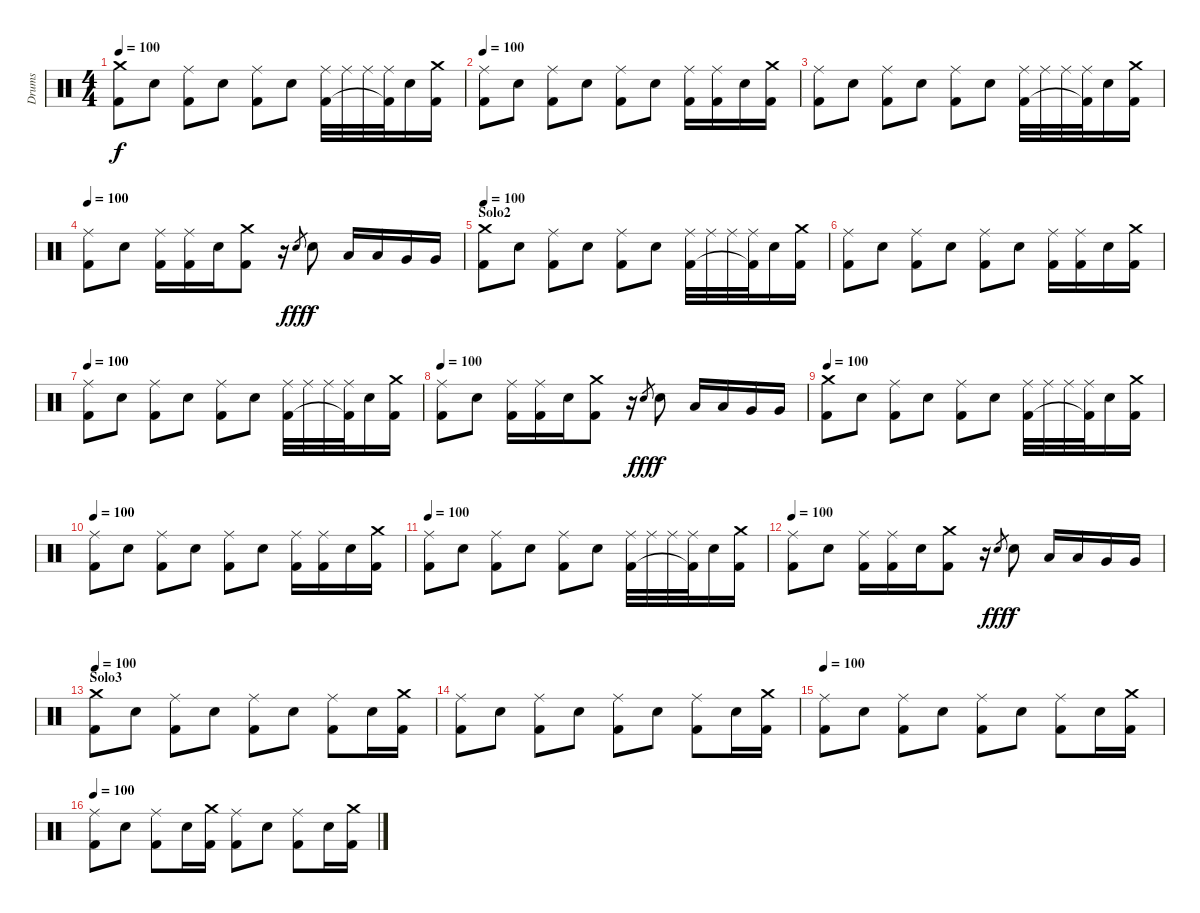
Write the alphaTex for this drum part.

\track ("Drums" "Drums") {instrument percussion}
\staff {score}
\articulation defaults
\ts (4 4)
\tempo 100
\clef neutral
\ks c
("Crash medium (hit)" "Kick (hit) 2").8{dy f} "Snare (hit) 2".8 ("Ride (middle)" "Kick (hit) 2").8 "Snare (hit) 2".8 ("Ride (middle)" "Kick (hit) 2").8 "Snare (hit) 2".8 ("Ride (middle)" "Kick (hit) 2").32 "Ride (middle)".32 "Ride (middle)".32 ("Ride (middle)" "Kick (hit) 2"{t}).32 "Snare (hit) 2".16 ("Crash medium (hit)" "Kick (hit) 2").16 |
\tempo 100
("Ride (middle)" "Kick (hit) 2").8 "Snare (hit) 2".8 ("Ride (middle)" "Kick (hit) 2").8 "Snare (hit) 2".8 ("Ride (middle)" "Kick (hit) 2").8 "Snare (hit) 2".8 ("Ride (middle)" "Kick (hit) 2").16 ("Ride (middle)" "Kick (hit) 2").16 "Snare (hit) 2".16 ("Crash medium (hit)" "Kick (hit) 2").16 |
("Ride (middle)" "Kick (hit) 2").8 "Snare (hit) 2".8 ("Ride (middle)" "Kick (hit) 2").8 "Snare (hit) 2".8 ("Ride (middle)" "Kick (hit) 2").8 "Snare (hit) 2".8 ("Ride (middle)" "Kick (hit) 2").32 "Ride (middle)".32 "Ride (middle)".32 ("Ride (middle)" "Kick (hit) 2"{t}).32 "Snare (hit) 2".16 ("Crash medium (hit)" "Kick (hit) 2").16 |
\tempo 100
("Ride (middle)" "Kick (hit) 2").8 "Snare (hit) 2".8 ("Ride (middle)" "Kick (hit) 2").16 ("Ride (middle)" "Kick (hit) 2").16 "Snare (hit) 2".16 ("Crash medium (hit)" "Kick (hit) 2").8 r.16 "Snare (hit) 2".8{gr dy fff} "Snare (hit) 2".8{dy f} "Low Tom (hit)".16 "Low Tom (hit)".16 "Very Low Tom (hit)".16 "Very Low Tom (hit)".16 |
\section ("" "Solo2")
\tempo 100
("Crash medium (hit)" "Kick (hit) 2").8 "Snare (hit) 2".8 ("Ride (middle)" "Kick (hit) 2").8 "Snare (hit) 2".8 ("Ride (middle)" "Kick (hit) 2").8 "Snare (hit) 2".8 ("Ride (middle)" "Kick (hit) 2").32 "Ride (middle)".32 "Ride (middle)".32 ("Ride (middle)" "Kick (hit) 2"{t}).32 "Snare (hit) 2".16 ("Crash medium (hit)" "Kick (hit) 2").16 |
("Ride (middle)" "Kick (hit) 2").8 "Snare (hit) 2".8 ("Ride (middle)" "Kick (hit) 2").8 "Snare (hit) 2".8 ("Ride (middle)" "Kick (hit) 2").8 "Snare (hit) 2".8 ("Ride (middle)" "Kick (hit) 2").16 ("Ride (middle)" "Kick (hit) 2").16 "Snare (hit) 2".16 ("Crash medium (hit)" "Kick (hit) 2").16 |
\tempo 100
("Ride (middle)" "Kick (hit) 2").8 "Snare (hit) 2".8 ("Ride (middle)" "Kick (hit) 2").8 "Snare (hit) 2".8 ("Ride (middle)" "Kick (hit) 2").8 "Snare (hit) 2".8 ("Ride (middle)" "Kick (hit) 2").32 "Ride (middle)".32 "Ride (middle)".32 ("Ride (middle)" "Kick (hit) 2"{t}).32 "Snare (hit) 2".16 ("Crash medium (hit)" "Kick (hit) 2").16 |
\tempo 100
("Ride (middle)" "Kick (hit) 2").8 "Snare (hit) 2".8 ("Ride (middle)" "Kick (hit) 2").16 ("Ride (middle)" "Kick (hit) 2").16 "Snare (hit) 2".16 ("Crash medium (hit)" "Kick (hit) 2").8 r.16 "Snare (hit) 2".8{gr dy fff} "Snare (hit) 2".8{dy f} "Low Tom (hit)".16 "Low Tom (hit)".16 "Very Low Tom (hit)".16 "Very Low Tom (hit)".16 |
\tempo 100
("Crash medium (hit)" "Kick (hit) 2").8 "Snare (hit) 2".8 ("Ride (middle)" "Kick (hit) 2").8 "Snare (hit) 2".8 ("Ride (middle)" "Kick (hit) 2").8 "Snare (hit) 2".8 ("Ride (middle)" "Kick (hit) 2").32 "Ride (middle)".32 "Ride (middle)".32 ("Ride (middle)" "Kick (hit) 2"{t}).32 "Snare (hit) 2".16 ("Crash medium (hit)" "Kick (hit) 2").16 |
\tempo 100
("Ride (middle)" "Kick (hit) 2").8 "Snare (hit) 2".8 ("Ride (middle)" "Kick (hit) 2").8 "Snare (hit) 2".8 ("Ride (middle)" "Kick (hit) 2").8 "Snare (hit) 2".8 ("Ride (middle)" "Kick (hit) 2").16 ("Ride (middle)" "Kick (hit) 2").16 "Snare (hit) 2".16 ("Crash medium (hit)" "Kick (hit) 2").16 |
\tempo 100
("Ride (middle)" "Kick (hit) 2").8 "Snare (hit) 2".8 ("Ride (middle)" "Kick (hit) 2").8 "Snare (hit) 2".8 ("Ride (middle)" "Kick (hit) 2").8 "Snare (hit) 2".8 ("Ride (middle)" "Kick (hit) 2").32 "Ride (middle)".32 "Ride (middle)".32 ("Ride (middle)" "Kick (hit) 2"{t}).32 "Snare (hit) 2".16 ("Crash medium (hit)" "Kick (hit) 2").16 |
\tempo 100
("Ride (middle)" "Kick (hit) 2").8 "Snare (hit) 2".8 ("Ride (middle)" "Kick (hit) 2").16 ("Ride (middle)" "Kick (hit) 2").16 "Snare (hit) 2".16 ("Crash medium (hit)" "Kick (hit) 2").8 r.16 "Snare (hit) 2".8{gr dy fff} "Snare (hit) 2".8{dy f} "Low Tom (hit)".16 "Low Tom (hit)".16 "Very Low Tom (hit)".16 "Very Low Tom (hit)".16 |
\section ("" "Solo3")
\tempo 100
("Crash medium (hit)" "Kick (hit) 2").8 "Snare (hit) 2".8 ("Ride (middle)" "Kick (hit) 2").8 "Snare (hit) 2".8 ("Ride (middle)" "Kick (hit) 2").8 "Snare (hit) 2".8 ("Ride (middle)" "Kick (hit) 2").8 "Snare (hit) 2".16 ("Crash medium (hit)" "Kick (hit) 2").16 |
("Ride (middle)" "Kick (hit) 2").8 "Snare (hit) 2".8 ("Ride (middle)" "Kick (hit) 2").8 "Snare (hit) 2".8 ("Ride (middle)" "Kick (hit) 2").8 "Snare (hit) 2".8 ("Ride (middle)" "Kick (hit) 2").8 "Snare (hit) 2".16 ("Crash medium (hit)" "Kick (hit) 2").16 |
\tempo 100
("Ride (middle)" "Kick (hit) 2").8 "Snare (hit) 2".8 ("Ride (middle)" "Kick (hit) 2").8 "Snare (hit) 2".8 ("Ride (middle)" "Kick (hit) 2").8 "Snare (hit) 2".8 ("Ride (middle)" "Kick (hit) 2").8 "Snare (hit) 2".16 ("Crash medium (hit)" "Kick (hit) 2").16 |
\tempo 100
("Ride (middle)" "Kick (hit) 2").8 "Snare (hit) 2".8 ("Ride (middle)" "Kick (hit) 2").8 "Snare (hit) 2".16 ("Crash medium (hit)" "Kick (hit) 2").16 ("Ride (middle)" "Kick (hit) 2").8 "Snare (hit) 2".8 ("Ride (middle)" "Kick (hit) 2").8 "Snare (hit) 2".16 ("Crash medium (hit)" "Kick (hit) 2").16
